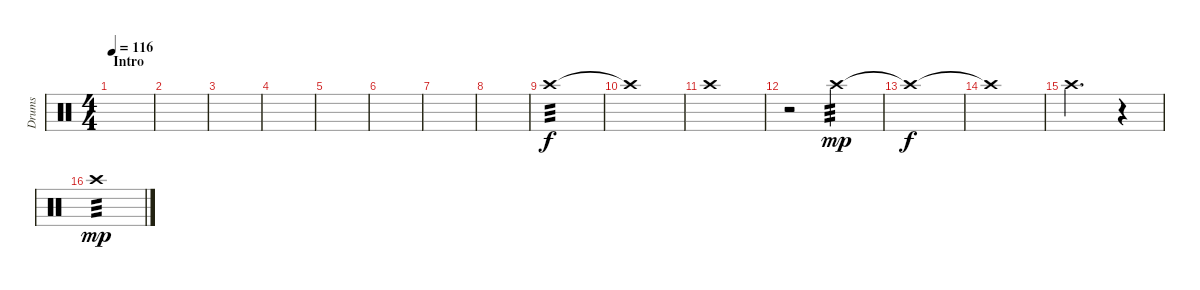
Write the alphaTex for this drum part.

\track ("Drums" "Drums") {instrument percussion}
\staff {score}
\articulation defaults
\ts (4 4)
\section ("" "Intro")
\tempo 116
\clef neutral
\ks c
|
|
|
|
|
|
|
|
"Crash high (hit)".1{tp 3 volume 9} |
"Crash high (hit)"{t}.1{dy f} |
"Crash high (hit)".1{volume 13} |
r.2{volume 0} "Crash high (hit)".2{tp 3 dy mp volume 9} |
"Crash high (hit)"{t}.1{dy f} |
"Crash high (hit)"{t}.1 |
"Crash high (hit)".2{d volume 13} r.4{volume 0} |
"Crash high (hit)".1{tp 3 dy mp volume 9}
